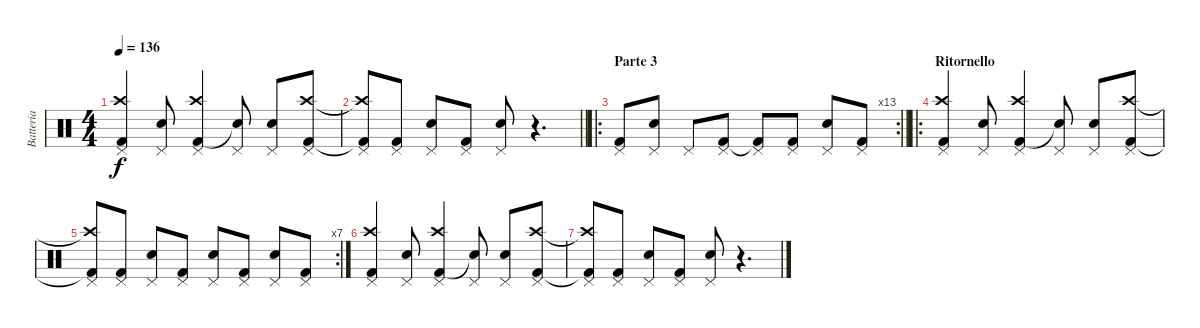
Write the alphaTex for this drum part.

\track ("Batteria" "Batteria") {instrument percussion}
\staff {score}
\articulation defaults
\ts (4 4)
\tempo 136
\clef neutral
\ks c
("Kick (hit) 2" "Crash high (hit)" "Pedal Hi-Hat (hit)").4{dy f} ("Electric Snare (hit)" "Pedal Hi-Hat (hit)").8 ("Kick (hit) 2" "Crash high (hit)" "Pedal Hi-Hat (hit)").4 ("Snare (hit)"{t} "Pedal Hi-Hat (hit)").8 ("Electric Snare (hit)" "Pedal Hi-Hat (hit)").8 ("Kick (hit) 2" "Crash high (hit)" "Pedal Hi-Hat (hit)").8 |
\barLineRight lightlight
("Kick (hit) 2"{t} "Crash high (hit)"{t} "Pedal Hi-Hat (hit)").8 ("Kick (hit) 2" "Pedal Hi-Hat (hit)").8 ("Electric Snare (hit)" "Pedal Hi-Hat (hit)").8 ("Kick (hit) 2" "Pedal Hi-Hat (hit)").8 ("Electric Snare (hit)" "Pedal Hi-Hat (hit)").8 r.4{d} |
\ro
\rc 13
\section ("" "Parte 3")
\barLineRight lightlight
("Kick (hit) 2" "Pedal Hi-Hat (hit)").8 ("Electric Snare (hit)" "Pedal Hi-Hat (hit)").8 "Pedal Hi-Hat (hit)".8 ("Kick (hit) 2" "Pedal Hi-Hat (hit)").8 ("Kick (hit) 2"{t} "Pedal Hi-Hat (hit)").8 ("Kick (hit) 2" "Pedal Hi-Hat (hit)").8 ("Electric Snare (hit)" "Pedal Hi-Hat (hit)").8 ("Kick (hit) 2" "Pedal Hi-Hat (hit)").8 |
\ro
\section ("" "Ritornello")
("Kick (hit) 2" "Crash high (hit)" "Pedal Hi-Hat (hit)").4 ("Electric Snare (hit)" "Pedal Hi-Hat (hit)").8 ("Kick (hit) 2" "Crash high (hit)" "Pedal Hi-Hat (hit)").4 ("Snare (hit)"{t} "Pedal Hi-Hat (hit)").8 ("Electric Snare (hit)" "Pedal Hi-Hat (hit)").8 ("Kick (hit) 2" "Crash high (hit)" "Pedal Hi-Hat (hit)").8 |
\rc 7
("Kick (hit) 2"{t} "Crash high (hit)"{t} "Pedal Hi-Hat (hit)").8 ("Kick (hit) 2" "Pedal Hi-Hat (hit)").8 ("Electric Snare (hit)" "Pedal Hi-Hat (hit)").8 ("Kick (hit) 2" "Pedal Hi-Hat (hit)").8 ("Electric Snare (hit)" "Pedal Hi-Hat (hit)").8 ("Kick (hit) 2" "Pedal Hi-Hat (hit)").8 ("Electric Snare (hit)" "Pedal Hi-Hat (hit)").8 ("Kick (hit) 2" "Pedal Hi-Hat (hit)").8 |
("Kick (hit) 2" "Crash high (hit)" "Pedal Hi-Hat (hit)").4 ("Electric Snare (hit)" "Pedal Hi-Hat (hit)").8 ("Kick (hit) 2" "Crash high (hit)" "Pedal Hi-Hat (hit)").4 ("Snare (hit)"{t} "Pedal Hi-Hat (hit)").8 ("Electric Snare (hit)" "Pedal Hi-Hat (hit)").8 ("Kick (hit) 2" "Crash high (hit)" "Pedal Hi-Hat (hit)").8 |
("Kick (hit) 2"{t} "Crash high (hit)"{t} "Pedal Hi-Hat (hit)").8 ("Kick (hit) 2" "Pedal Hi-Hat (hit)").8 ("Electric Snare (hit)" "Pedal Hi-Hat (hit)").8 ("Kick (hit) 2" "Pedal Hi-Hat (hit)").8 ("Electric Snare (hit)" "Pedal Hi-Hat (hit)").8 r.4{d}
